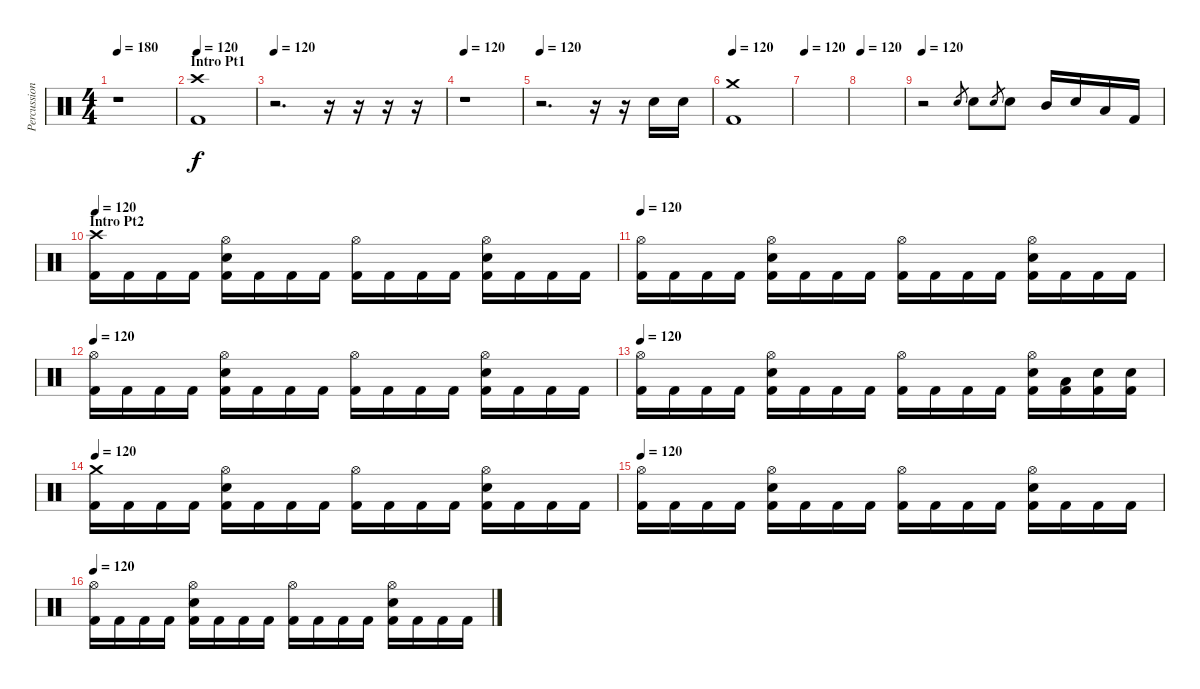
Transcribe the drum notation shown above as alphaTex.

\track ("Percussion" "Percussion") {instrument percussion}
\staff {score}
\articulation defaults
\ts (4 4)
\tempo 180
\tempo 120
\tempo 180
\clef neutral
\ks c
r.1{dy f} |
\section ("" "Intro Pt1")
\tempo 120
("Crash high (hit)" "Kick (hit) 2").1 |
\tempo 120
r.2{d} r.16 r.16 r.16 r.16 |
\tempo 120
r.1 |
\tempo 120
r.2{d} r.16 r.16 "Electric Snare (hit)".16 "Electric Snare (hit)".16 |
\tempo 120
("Crash medium (hit)" "Kick (hit) 2").1 |
\tempo 120
|
\tempo 120
|
\tempo 120
r.2 "Electric Snare (hit)".8{gr} "Electric Snare (hit)".8 "Electric Snare (hit)".8{gr} "Electric Snare (hit)".8 "Mid Tom (hit)".16 "Electric Snare (hit)".16 "Low Tom (hit)".16 "Kick (hit) 2".16 |
\section ("" "Intro Pt2")
\tempo 120
("Crash high (hit)" "Kick (hit) 2").16 "Kick (hit) 2".16 "Kick (hit) 2".16 "Kick (hit) 2".16 ("Hi-Hat (open)" "Electric Snare (hit)" "Kick (hit) 2").16 "Kick (hit) 2".16 "Kick (hit) 2".16 "Kick (hit) 2".16 ("Hi-Hat (open)" "Kick (hit) 2").16 "Kick (hit) 2".16 "Kick (hit) 2".16 "Kick (hit) 2".16 ("Hi-Hat (open)" "Electric Snare (hit)" "Kick (hit) 2").16 "Kick (hit) 2".16 "Kick (hit) 2".16 "Kick (hit) 2".16 |
\tempo 120
("Hi-Hat (open)" "Kick (hit) 2").16 "Kick (hit) 2".16 "Kick (hit) 2".16 "Kick (hit) 2".16 ("Hi-Hat (open)" "Electric Snare (hit)" "Kick (hit) 2").16 "Kick (hit) 2".16 "Kick (hit) 2".16 "Kick (hit) 2".16 ("Hi-Hat (open)" "Kick (hit) 2").16 "Kick (hit) 2".16 "Kick (hit) 2".16 "Kick (hit) 2".16 ("Hi-Hat (open)" "Electric Snare (hit)" "Kick (hit) 2").16 "Kick (hit) 2".16 "Kick (hit) 2".16 "Kick (hit) 2".16 |
\tempo 120
("Hi-Hat (open)" "Kick (hit) 2").16 "Kick (hit) 2".16 "Kick (hit) 2".16 "Kick (hit) 2".16 ("Hi-Hat (open)" "Electric Snare (hit)" "Kick (hit) 2").16 "Kick (hit) 2".16 "Kick (hit) 2".16 "Kick (hit) 2".16 ("Hi-Hat (open)" "Kick (hit) 2").16 "Kick (hit) 2".16 "Kick (hit) 2".16 "Kick (hit) 2".16 ("Hi-Hat (open)" "Electric Snare (hit)" "Kick (hit) 2").16 "Kick (hit) 2".16 "Kick (hit) 2".16 "Kick (hit) 2".16 |
\tempo 120
("Hi-Hat (open)" "Kick (hit) 2").16 "Kick (hit) 2".16 "Kick (hit) 2".16 "Kick (hit) 2".16 ("Hi-Hat (open)" "Electric Snare (hit)" "Kick (hit) 2").16 "Kick (hit) 2".16 "Kick (hit) 2".16 "Kick (hit) 2".16 ("Hi-Hat (open)" "Kick (hit) 2").16 "Kick (hit) 2".16 "Kick (hit) 2".16 "Kick (hit) 2".16 ("Hi-Hat (open)" "Electric Snare (hit)" "Kick (hit) 2").16 ("Low Tom (hit)" "Kick (hit) 2").16 ("Electric Snare (hit)" "Kick (hit) 2").16 ("Electric Snare (hit)" "Kick (hit) 2").16 |
\tempo 120
("Crash medium (hit)" "Kick (hit) 2").16 "Kick (hit) 2".16 "Kick (hit) 2".16 "Kick (hit) 2".16 ("Hi-Hat (open)" "Electric Snare (hit)" "Kick (hit) 2").16 "Kick (hit) 2".16 "Kick (hit) 2".16 "Kick (hit) 2".16 ("Hi-Hat (open)" "Kick (hit) 2").16 "Kick (hit) 2".16 "Kick (hit) 2".16 "Kick (hit) 2".16 ("Hi-Hat (open)" "Electric Snare (hit)" "Kick (hit) 2").16 "Kick (hit) 2".16 "Kick (hit) 2".16 "Kick (hit) 2".16 |
\tempo 120
("Hi-Hat (open)" "Kick (hit) 2").16 "Kick (hit) 2".16 "Kick (hit) 2".16 "Kick (hit) 2".16 ("Hi-Hat (open)" "Electric Snare (hit)" "Kick (hit) 2").16 "Kick (hit) 2".16 "Kick (hit) 2".16 "Kick (hit) 2".16 ("Hi-Hat (open)" "Kick (hit) 2").16 "Kick (hit) 2".16 "Kick (hit) 2".16 "Kick (hit) 2".16 ("Hi-Hat (open)" "Electric Snare (hit)" "Kick (hit) 2").16 "Kick (hit) 2".16 "Kick (hit) 2".16 "Kick (hit) 2".16 |
\tempo 120
("Hi-Hat (open)" "Kick (hit) 2").16 "Kick (hit) 2".16 "Kick (hit) 2".16 "Kick (hit) 2".16 ("Hi-Hat (open)" "Electric Snare (hit)" "Kick (hit) 2").16 "Kick (hit) 2".16 "Kick (hit) 2".16 "Kick (hit) 2".16 ("Hi-Hat (open)" "Kick (hit) 2").16 "Kick (hit) 2".16 "Kick (hit) 2".16 "Kick (hit) 2".16 ("Hi-Hat (open)" "Electric Snare (hit)" "Kick (hit) 2").16 "Kick (hit) 2".16 "Kick (hit) 2".16 "Kick (hit) 2".16
